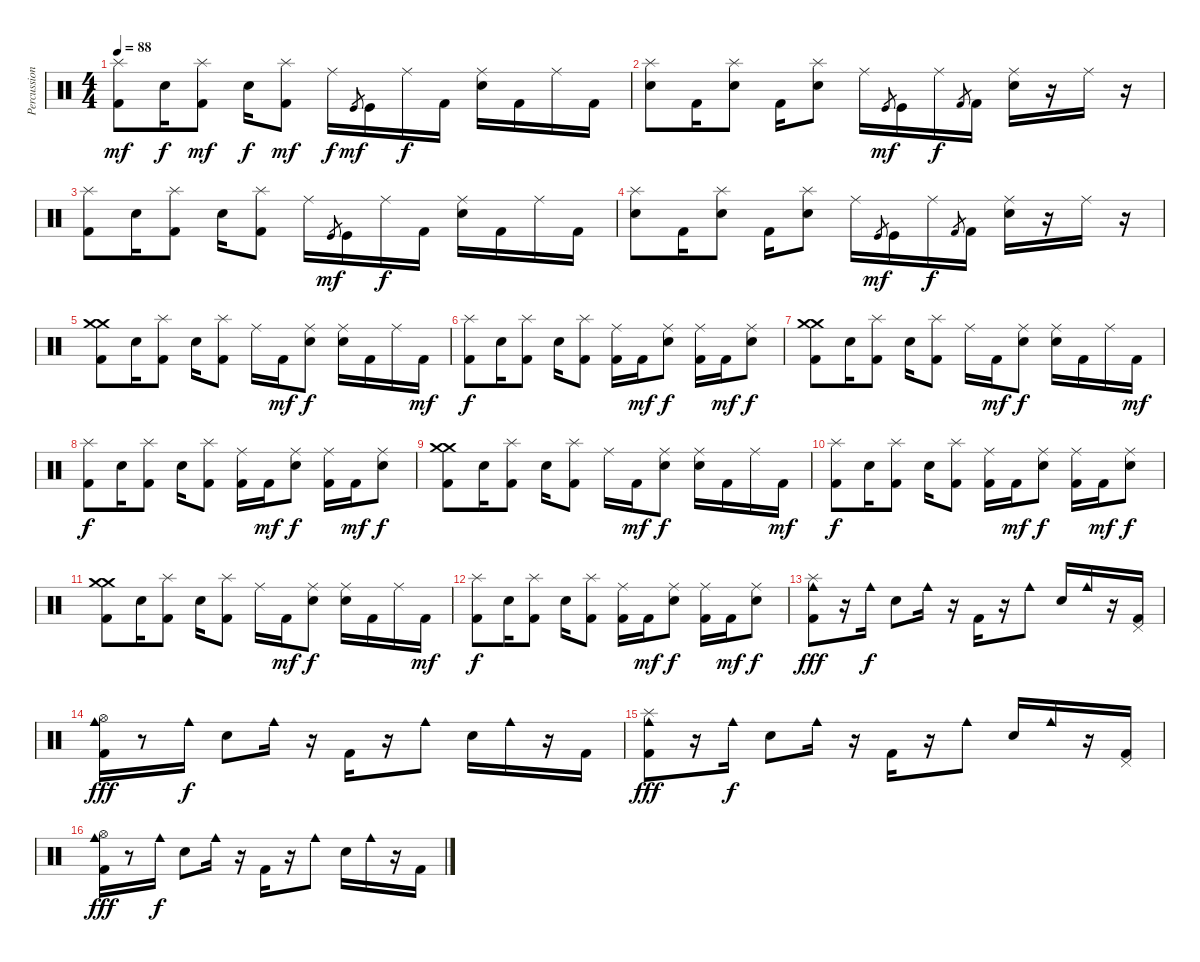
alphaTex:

\track ("Percussion" "Percussion") {instrument percussion}
\staff {score}
\articulation defaults
\ts (4 4)
\tempo 88
\clef neutral
\ks c
("Splash (hit)" "Kick (hit) 2").8{dy mf} "Electric Snare (hit)".16{dy f} ("Splash (hit)" "Kick (hit) 2").8{dy mf} "Electric Snare (hit)".16{dy f} ("Splash (hit)" "Kick (hit) 2").8{dy mf} "Ride (middle)".16{dy f} "Kick (hit)".8{gr dy mf} "Kick (hit)".16 "Ride (middle)".16{dy f} "Kick (hit) 2".16 ("Ride (middle)" "Electric Snare (hit)").16 "Kick (hit) 2".16 "Ride (middle)".16 "Kick (hit) 2".16 |
("Splash (hit)" "Electric Snare (hit)").8 "Kick (hit) 2".16 ("Splash (hit)" "Electric Snare (hit)").8 "Kick (hit) 2".16 ("Splash (hit)" "Electric Snare (hit)").8 "Ride (middle)".16 "Kick (hit)".8{gr dy mf} "Kick (hit)".16 "Ride (middle)".16{dy f} "Kick (hit) 2".8{gr} "Kick (hit) 2".16 ("Ride (middle)" "Electric Snare (hit)").16 r.16 "Ride (middle)".16 r.16 |
("Splash (hit)" "Kick (hit) 2").8 "Electric Snare (hit)".16 ("Splash (hit)" "Kick (hit) 2").8 "Electric Snare (hit)".16 ("Splash (hit)" "Kick (hit) 2").8 "Ride (middle)".16 "Kick (hit)".8{gr dy mf} "Kick (hit)".16 "Ride (middle)".16{dy f} "Kick (hit) 2".16 ("Ride (middle)" "Electric Snare (hit)").16 "Kick (hit) 2".16 "Ride (middle)".16 "Kick (hit) 2".16 |
("Splash (hit)" "Electric Snare (hit)").8 "Kick (hit) 2".16 ("Splash (hit)" "Electric Snare (hit)").8 "Kick (hit) 2".16 ("Splash (hit)" "Electric Snare (hit)").8 "Ride (middle)".16 "Kick (hit)".8{gr dy mf} "Kick (hit)".16 "Ride (middle)".16{dy f} "Kick (hit) 2".8{gr} "Kick (hit) 2".16 ("Ride (middle)" "Electric Snare (hit)").16 r.16 "Ride (middle)".16 r.16 |
("Crash medium (hit)" "Crash medium (hit)" "Kick (hit) 2").8 "Electric Snare (hit)".16 ("Splash (hit)" "Kick (hit) 2").8 "Electric Snare (hit)".16 ("Splash (hit)" "Kick (hit) 2").8 "Ride (middle)".16 "Kick (hit) 2".16{dy mf} ("Ride (middle)" "Electric Snare (hit)").8{dy f} ("Ride (middle)" "Electric Snare (hit)").16 "Kick (hit) 2".16 "Ride (middle)".16 "Kick (hit) 2".16{dy mf} |
("Splash (hit)" "Kick (hit) 2").8{dy f} "Electric Snare (hit)".16 ("Splash (hit)" "Kick (hit) 2").8 "Electric Snare (hit)".16 ("Splash (hit)" "Kick (hit) 2").8 ("Ride (middle)" "Kick (hit) 2").16 "Kick (hit) 2".16{dy mf} ("Ride (middle)" "Electric Snare (hit)").8{dy f} ("Ride (middle)" "Kick (hit) 2").16 "Kick (hit) 2".16{dy mf} ("Ride (middle)" "Electric Snare (hit)").8{dy f} |
("Crash medium (hit)" "Crash medium (hit)" "Kick (hit) 2").8 "Electric Snare (hit)".16 ("Splash (hit)" "Kick (hit) 2").8 "Electric Snare (hit)".16 ("Splash (hit)" "Kick (hit) 2").8 "Ride (middle)".16 "Kick (hit) 2".16{dy mf} ("Ride (middle)" "Electric Snare (hit)").8{dy f} ("Ride (middle)" "Electric Snare (hit)").16 "Kick (hit) 2".16 "Ride (middle)".16 "Kick (hit) 2".16{dy mf} |
("Splash (hit)" "Kick (hit) 2").8{dy f} "Electric Snare (hit)".16 ("Splash (hit)" "Kick (hit) 2").8 "Electric Snare (hit)".16 ("Splash (hit)" "Kick (hit) 2").8 ("Ride (middle)" "Kick (hit) 2").16 "Kick (hit) 2".16{dy mf} ("Ride (middle)" "Electric Snare (hit)").8{dy f} ("Ride (middle)" "Kick (hit) 2").16 "Kick (hit) 2".16{dy mf} ("Ride (middle)" "Electric Snare (hit)").8{dy f} |
("Crash medium (hit)" "Crash medium (hit)" "Kick (hit) 2").8 "Electric Snare (hit)".16 ("Splash (hit)" "Kick (hit) 2").8 "Electric Snare (hit)".16 ("Splash (hit)" "Kick (hit) 2").8 "Ride (middle)".16 "Kick (hit) 2".16{dy mf} ("Ride (middle)" "Electric Snare (hit)").8{dy f} ("Ride (middle)" "Electric Snare (hit)").16 "Kick (hit) 2".16 "Ride (middle)".16 "Kick (hit) 2".16{dy mf} |
("Splash (hit)" "Kick (hit) 2").8{dy f} "Electric Snare (hit)".16 ("Splash (hit)" "Kick (hit) 2").8 "Electric Snare (hit)".16 ("Splash (hit)" "Kick (hit) 2").8 ("Ride (middle)" "Kick (hit) 2").16 "Kick (hit) 2".16{dy mf} ("Ride (middle)" "Electric Snare (hit)").8{dy f} ("Ride (middle)" "Kick (hit) 2").16 "Kick (hit) 2".16{dy mf} ("Ride (middle)" "Electric Snare (hit)").8{dy f} |
("Crash medium (hit)" "Crash medium (hit)" "Kick (hit) 2").8 "Electric Snare (hit)".16 ("Splash (hit)" "Kick (hit) 2").8 "Electric Snare (hit)".16 ("Splash (hit)" "Kick (hit) 2").8 "Ride (middle)".16 "Kick (hit) 2".16{dy mf} ("Ride (middle)" "Electric Snare (hit)").8{dy f} ("Ride (middle)" "Electric Snare (hit)").16 "Kick (hit) 2".16 "Ride (middle)".16 "Kick (hit) 2".16{dy mf} |
("Splash (hit)" "Kick (hit) 2").8{dy f} "Electric Snare (hit)".16 ("Splash (hit)" "Kick (hit) 2").8 "Electric Snare (hit)".16 ("Splash (hit)" "Kick (hit) 2").8 ("Ride (middle)" "Kick (hit) 2").16 "Kick (hit) 2".16{dy mf} ("Ride (middle)" "Electric Snare (hit)").8{dy f} ("Ride (middle)" "Kick (hit) 2").16 "Kick (hit) 2".16{dy mf} ("Ride (middle)" "Electric Snare (hit)").8{dy f} |
("Splash (hit)" "Cowbell medium (hit)" "Kick (hit) 2").8{dy fff} r.16 "Cowbell medium (hit)".16{dy f} "Electric Snare (hit)".8 "Cowbell medium (hit)".16 r.16 "Kick (hit) 2".16 r.16 "Cowbell medium (hit)".8 "Electric Snare (hit)".16 "Cowbell medium (hit)".16 r.16 ("Pedal Hi-Hat (hit)" "Kick (hit) 2").16 |
("Hi-Hat (open)" "Cowbell medium (hit)" "Kick (hit) 2").16{dy fff} r.8 "Cowbell medium (hit)".16{dy f} "Electric Snare (hit)".8 "Cowbell medium (hit)".16 r.16 "Kick (hit) 2".16 r.16 "Cowbell medium (hit)".8 "Electric Snare (hit)".16 "Cowbell medium (hit)".16 r.16 "Kick (hit) 2".16 |
("Splash (hit)" "Cowbell medium (hit)" "Kick (hit) 2").8{dy fff} r.16 "Cowbell medium (hit)".16{dy f} "Electric Snare (hit)".8 "Cowbell medium (hit)".16 r.16 "Kick (hit) 2".16 r.16 "Cowbell medium (hit)".8 "Electric Snare (hit)".16 "Cowbell medium (hit)".16 r.16 ("Pedal Hi-Hat (hit)" "Kick (hit) 2").16 |
("Hi-Hat (open)" "Cowbell medium (hit)" "Kick (hit) 2").16{dy fff} r.8 "Cowbell medium (hit)".16{dy f} "Electric Snare (hit)".8 "Cowbell medium (hit)".16 r.16 "Kick (hit) 2".16 r.16 "Cowbell medium (hit)".8 "Electric Snare (hit)".16 "Cowbell medium (hit)".16 r.16 "Kick (hit) 2".16
